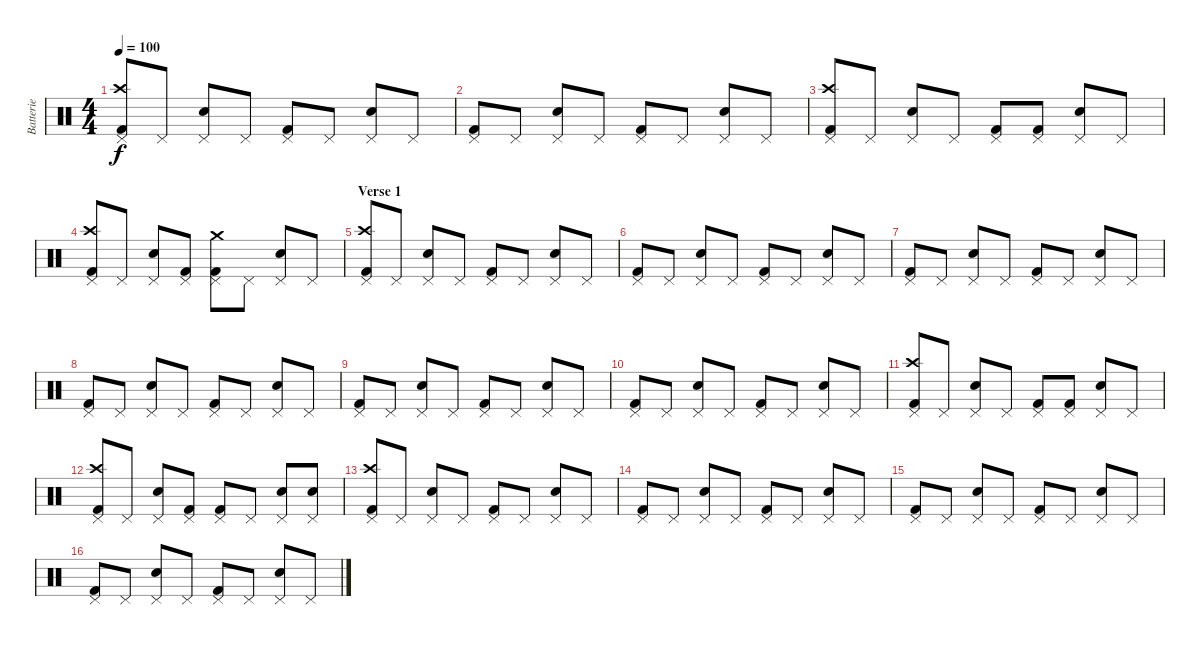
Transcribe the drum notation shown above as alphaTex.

\track ("Batterie" "Batterie") {instrument percussion}
\staff {score}
\articulation defaults
\ts (4 4)
\tempo 100
\clef neutral
\ks c
("Pedal Hi-Hat (hit)" "Crash high (hit)" "Kick (hit) 2").8{dy f} "Pedal Hi-Hat (hit)".8 ("Pedal Hi-Hat (hit)" "Snare (hit) 2").8 "Pedal Hi-Hat (hit)".8 ("Pedal Hi-Hat (hit)" "Kick (hit) 2").8 "Pedal Hi-Hat (hit)".8 ("Pedal Hi-Hat (hit)" "Snare (hit) 2").8 "Pedal Hi-Hat (hit)".8 |
("Pedal Hi-Hat (hit)" "Kick (hit) 2").8 "Pedal Hi-Hat (hit)".8 ("Pedal Hi-Hat (hit)" "Snare (hit) 2").8 "Pedal Hi-Hat (hit)".8 ("Pedal Hi-Hat (hit)" "Kick (hit) 2").8 "Pedal Hi-Hat (hit)".8 ("Pedal Hi-Hat (hit)" "Snare (hit) 2").8 "Pedal Hi-Hat (hit)".8 |
("Pedal Hi-Hat (hit)" "Crash high (hit)" "Kick (hit) 2").8 "Pedal Hi-Hat (hit)".8 ("Pedal Hi-Hat (hit)" "Snare (hit) 2").8 "Pedal Hi-Hat (hit)".8 ("Pedal Hi-Hat (hit)" "Kick (hit) 2").8 ("Pedal Hi-Hat (hit)" "Kick (hit) 2").8 ("Pedal Hi-Hat (hit)" "Snare (hit) 2").8 "Pedal Hi-Hat (hit)".8 |
("Pedal Hi-Hat (hit)" "Crash high (hit)" "Kick (hit) 2").8 "Pedal Hi-Hat (hit)".8 ("Pedal Hi-Hat (hit)" "Snare (hit) 2").8 ("Pedal Hi-Hat (hit)" "Kick (hit) 2").8 ("Pedal Hi-Hat (hit)" "Crash medium (hit)" "Kick (hit) 2").8 "Pedal Hi-Hat (hit)".8 ("Pedal Hi-Hat (hit)" "Snare (hit) 2").8 "Pedal Hi-Hat (hit)".8 |
\section ("" "Verse 1")
("Pedal Hi-Hat (hit)" "Crash high (hit)" "Kick (hit) 2").8 "Pedal Hi-Hat (hit)".8 ("Pedal Hi-Hat (hit)" "Snare (hit) 2").8 "Pedal Hi-Hat (hit)".8 ("Pedal Hi-Hat (hit)" "Kick (hit) 2").8 "Pedal Hi-Hat (hit)".8 ("Pedal Hi-Hat (hit)" "Snare (hit) 2").8 "Pedal Hi-Hat (hit)".8 |
("Pedal Hi-Hat (hit)" "Kick (hit) 2").8 "Pedal Hi-Hat (hit)".8 ("Pedal Hi-Hat (hit)" "Snare (hit) 2").8 "Pedal Hi-Hat (hit)".8 ("Pedal Hi-Hat (hit)" "Kick (hit) 2").8 "Pedal Hi-Hat (hit)".8 ("Pedal Hi-Hat (hit)" "Snare (hit) 2").8 "Pedal Hi-Hat (hit)".8 |
("Pedal Hi-Hat (hit)" "Kick (hit) 2").8 "Pedal Hi-Hat (hit)".8 ("Pedal Hi-Hat (hit)" "Snare (hit) 2").8 "Pedal Hi-Hat (hit)".8 ("Pedal Hi-Hat (hit)" "Kick (hit) 2").8 "Pedal Hi-Hat (hit)".8 ("Pedal Hi-Hat (hit)" "Snare (hit) 2").8 "Pedal Hi-Hat (hit)".8 |
("Pedal Hi-Hat (hit)" "Kick (hit) 2").8 "Pedal Hi-Hat (hit)".8 ("Pedal Hi-Hat (hit)" "Snare (hit) 2").8 "Pedal Hi-Hat (hit)".8 ("Pedal Hi-Hat (hit)" "Kick (hit) 2").8 "Pedal Hi-Hat (hit)".8 ("Pedal Hi-Hat (hit)" "Snare (hit) 2").8 "Pedal Hi-Hat (hit)".8 |
("Pedal Hi-Hat (hit)" "Kick (hit) 2").8 "Pedal Hi-Hat (hit)".8 ("Pedal Hi-Hat (hit)" "Snare (hit) 2").8 "Pedal Hi-Hat (hit)".8 ("Pedal Hi-Hat (hit)" "Kick (hit) 2").8 "Pedal Hi-Hat (hit)".8 ("Pedal Hi-Hat (hit)" "Snare (hit) 2").8 "Pedal Hi-Hat (hit)".8 |
("Pedal Hi-Hat (hit)" "Kick (hit) 2").8 "Pedal Hi-Hat (hit)".8 ("Pedal Hi-Hat (hit)" "Snare (hit) 2").8 "Pedal Hi-Hat (hit)".8 ("Pedal Hi-Hat (hit)" "Kick (hit) 2").8 "Pedal Hi-Hat (hit)".8 ("Pedal Hi-Hat (hit)" "Snare (hit) 2").8 "Pedal Hi-Hat (hit)".8 |
("Pedal Hi-Hat (hit)" "Crash high (hit)" "Kick (hit) 2").8 "Pedal Hi-Hat (hit)".8 ("Pedal Hi-Hat (hit)" "Snare (hit) 2").8 "Pedal Hi-Hat (hit)".8 ("Pedal Hi-Hat (hit)" "Kick (hit) 2").8 ("Pedal Hi-Hat (hit)" "Kick (hit) 2").8 ("Pedal Hi-Hat (hit)" "Snare (hit) 2").8 "Pedal Hi-Hat (hit)".8 |
("Pedal Hi-Hat (hit)" "Crash high (hit)" "Kick (hit) 2").8 "Pedal Hi-Hat (hit)".8 ("Pedal Hi-Hat (hit)" "Snare (hit) 2").8 ("Pedal Hi-Hat (hit)" "Kick (hit) 2").8 ("Pedal Hi-Hat (hit)" "Kick (hit) 2").8 "Pedal Hi-Hat (hit)".8 ("Pedal Hi-Hat (hit)" "Snare (hit) 2").8 ("Pedal Hi-Hat (hit)" "Snare (hit) 2").8 |
("Pedal Hi-Hat (hit)" "Crash high (hit)" "Kick (hit) 2").8 "Pedal Hi-Hat (hit)".8 ("Pedal Hi-Hat (hit)" "Snare (hit) 2").8 "Pedal Hi-Hat (hit)".8 ("Pedal Hi-Hat (hit)" "Kick (hit) 2").8 "Pedal Hi-Hat (hit)".8 ("Pedal Hi-Hat (hit)" "Snare (hit) 2").8 "Pedal Hi-Hat (hit)".8 |
("Pedal Hi-Hat (hit)" "Kick (hit) 2").8 "Pedal Hi-Hat (hit)".8 ("Pedal Hi-Hat (hit)" "Snare (hit) 2").8 "Pedal Hi-Hat (hit)".8 ("Pedal Hi-Hat (hit)" "Kick (hit) 2").8 "Pedal Hi-Hat (hit)".8 ("Pedal Hi-Hat (hit)" "Snare (hit) 2").8 "Pedal Hi-Hat (hit)".8 |
("Pedal Hi-Hat (hit)" "Kick (hit) 2").8 "Pedal Hi-Hat (hit)".8 ("Pedal Hi-Hat (hit)" "Snare (hit) 2").8 "Pedal Hi-Hat (hit)".8 ("Pedal Hi-Hat (hit)" "Kick (hit) 2").8 "Pedal Hi-Hat (hit)".8 ("Pedal Hi-Hat (hit)" "Snare (hit) 2").8 "Pedal Hi-Hat (hit)".8 |
("Pedal Hi-Hat (hit)" "Kick (hit) 2").8 "Pedal Hi-Hat (hit)".8 ("Pedal Hi-Hat (hit)" "Snare (hit) 2").8 "Pedal Hi-Hat (hit)".8 ("Pedal Hi-Hat (hit)" "Kick (hit) 2").8 "Pedal Hi-Hat (hit)".8 ("Pedal Hi-Hat (hit)" "Snare (hit) 2").8 "Pedal Hi-Hat (hit)".8
